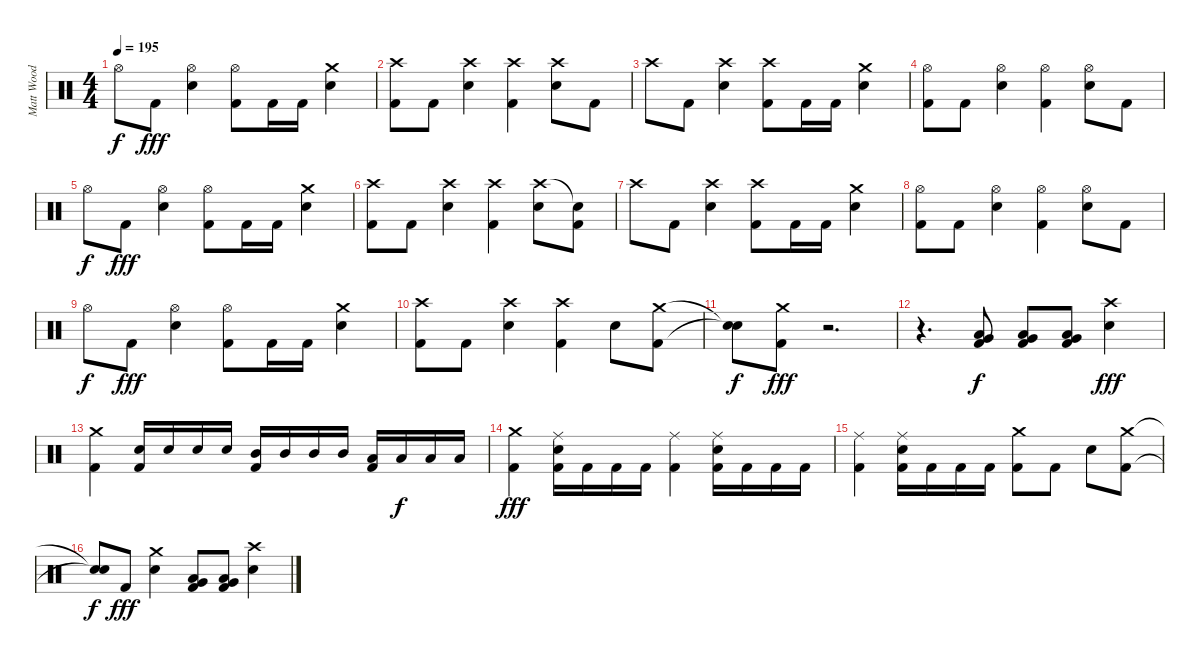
\track ("Matt Wood" "Matt Wood") {instrument percussion}
\staff {score}
\articulation defaults
\ts (4 4)
\tempo 195
\clef neutral
\ks c "Hi-Hat (open)".8{dy f} "Kick (hit) 2".8{dy fff}
("Hi-Hat (open)" "Snare (hit) 2").4 ("Hi-Hat (open)" "Kick (hit) 2").8 "Kick (hit) 2".16 "Kick (hit) 2".16 ("Crash medium (hit)" "Snare (hit) 2").4 |
("Crash high (hit)" "Kick (hit) 2").8 "Kick (hit) 2".8 ("Crash high (hit)" "Snare (hit) 2").4 ("Crash high (hit)" "Kick (hit) 2").4 ("Crash high (hit)" "Snare (hit) 2").8 "Kick (hit) 2".8 |
"Crash high (hit)".8 "Kick (hit) 2".8 ("Crash high (hit)" "Snare (hit) 2").4 ("Crash high (hit)" "Kick (hit) 2").8 "Kick (hit) 2".16 "Kick (hit) 2".16 ("Crash medium (hit)" "Snare (hit) 2").4 |
("Hi-Hat (open)" "Kick (hit) 2").8 "Kick (hit) 2".8 ("Hi-Hat (open)" "Snare (hit) 2").4 ("Hi-Hat (open)" "Kick (hit) 2").4 ("Hi-Hat (open)" "Snare (hit) 2").8 "Kick (hit) 2".8 |
"Hi-Hat (open)".8{dy f} "Kick (hit) 2".8{dy fff} ("Hi-Hat (open)" "Snare (hit) 2").4 ("Hi-Hat (open)" "Kick (hit) 2").8 "Kick (hit) 2".16 "Kick (hit) 2".16 ("Crash medium (hit)" "Snare (hit) 2").4 |
("Crash high (hit)" "Kick (hit) 2").8 "Kick (hit) 2".8 ("Crash high (hit)" "Snare (hit) 2").4 ("Crash high (hit)" "Kick (hit) 2").4 ("Crash high (hit)" "Snare (hit) 2").8 ("Snare (hit)"{t} "Kick (hit) 2").8 |
"Crash high (hit)".8 "Kick (hit) 2".8 ("Crash high (hit)" "Snare (hit) 2").4 ("Crash high (hit)" "Kick (hit) 2").8 "Kick (hit) 2".16 "Kick (hit) 2".16 ("Crash medium (hit)" "Snare (hit) 2").4 |
("Hi-Hat (open)" "Kick (hit) 2").8 "Kick (hit) 2".8 ("Hi-Hat (open)" "Snare (hit) 2").4 ("Hi-Hat (open)" "Kick (hit) 2").4 ("Hi-Hat (open)" "Snare (hit) 2").8 "Kick (hit) 2".8 |
"Hi-Hat (open)".8{dy f} "Kick (hit) 2".8{dy fff} ("Hi-Hat (open)" "Snare (hit) 2").4 ("Hi-Hat (open)" "Kick (hit) 2").8 "Kick (hit) 2".16 "Kick (hit) 2".16 ("Crash medium (hit)" "Snare (hit) 2").4 |
("Crash high (hit)" "Kick (hit) 2").8 "Kick (hit) 2".8 ("Crash high (hit)" "Snare (hit) 2").4 ("Crash high (hit)" "Kick (hit) 2").4 "Snare (hit) 2".8 ("Crash medium (hit)" "Kick (hit) 2").8 |
("Snare (hit)"{t} "Snare (hit)"{t}).8{dy f} ("Crash medium (hit)" "Kick (hit) 2").8{dy fff} r.2{d} |
r.4{d} ("Low Tom (hit)" "Very Low Tom (hit)" "Kick (hit) 2").8{dy f} ("Low Tom (hit)" "Very Low Tom (hit)" "Kick (hit) 2").8 ("Low Tom (hit)" "Very Low Tom (hit)" "Kick (hit) 2").8 ("Crash high (hit)" "Snare (hit) 2").4{dy fff} |
("Crash medium (hit)" "Kick (hit) 2").4 ("Snare (hit) 2" "Kick (hit) 2").16 "Snare (hit) 2".16 "Snare (hit) 2".16 "Snare (hit) 2".16 ("Mid Tom (hit)" "Kick (hit) 2").16 "Mid Tom (hit)".16 "Mid Tom (hit)".16 "Mid Tom (hit)".16 ("Low Tom (hit)" "Kick (hit) 2").16 "Low Tom (hit)".16{dy f} "Low Tom (hit)".16 "Low Tom (hit)".16 |
("Crash medium (hit)" "Kick (hit) 2").4{dy fff} ("Ride (middle)" "Snare (hit) 2" "Kick (hit) 2").16 "Kick (hit) 2".16 "Kick (hit) 2".16 "Kick (hit) 2".16 ("Ride (middle)" "Kick (hit) 2").4 ("Ride (middle)" "Snare (hit) 2" "Kick (hit) 2").16 "Kick (hit) 2".16 "Kick (hit) 2".16 "Kick (hit) 2".16 |
("Ride (middle)" "Kick (hit) 2").4 ("Ride (middle)" "Snare (hit) 2" "Kick (hit) 2").16 "Kick (hit) 2".16 "Kick (hit) 2".16 "Kick (hit) 2".16 ("Crash medium (hit)" "Kick (hit) 2").8 "Kick (hit) 2".8 "Snare (hit) 2".8 ("Crash medium (hit)" "Kick (hit) 2").8 |
("Snare (hit)"{t} "Snare (hit)"{t}).8{dy f} "Kick (hit) 2".8{dy fff} ("Crash medium (hit)" "Snare (hit) 2").4 ("Low Tom (hit)" "Very Low Tom (hit)" "Kick (hit) 2").8 ("Low Tom (hit)" "Very Low Tom (hit)" "Kick (hit) 2").8 ("Crash high (hit)" "Snare (hit) 2").4
